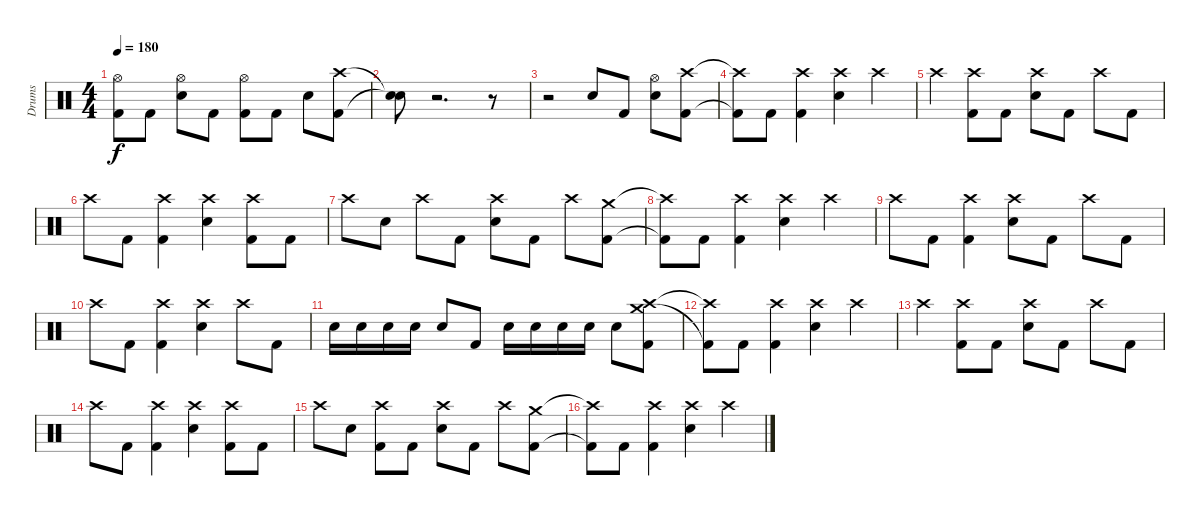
\track ("Drums" "Drums") {instrument percussion}
\staff {score}
\articulation defaults
\ts (4 4)
\tempo 180
\clef neutral
\ks c
("Hi-Hat (open)" "Kick (hit) 2").8{dy f} "Kick (hit) 2".8 ("Hi-Hat (open)" "Electric Snare (hit)").8 "Kick (hit) 2".8 ("Hi-Hat (open)" "Kick (hit) 2").8 "Kick (hit) 2".8 "Electric Snare (hit)".8 ("Crash high (hit)" "Kick (hit) 2").8 |
("Snare (hit)"{t} "Snare (hit)"{t}).8 r.2{d volume 0} r.8 |
r.2 "Electric Snare (hit)".8{volume 16} "Kick (hit) 2".8 ("Hi-Hat (open)" "Electric Snare (hit)").8 ("Crash high (hit)" "Kick (hit) 2").8 |
("Crash high (hit)"{t} "Kick (hit) 2"{t}).8 "Kick (hit) 2".8 ("Crash high (hit)" "Kick (hit) 2").4 ("Crash high (hit)" "Electric Snare (hit)").4 "Crash high (hit)".4 |
"Crash high (hit)".4 ("Crash high (hit)" "Kick (hit) 2").8 "Kick (hit) 2".8 ("Crash high (hit)" "Electric Snare (hit)").8 "Kick (hit) 2".8 "Crash high (hit)".8 "Kick (hit) 2".8 |
"Crash high (hit)".8 "Kick (hit) 2".8 ("Crash high (hit)" "Kick (hit) 2").4 ("Crash high (hit)" "Electric Snare (hit)").4 ("Crash high (hit)" "Kick (hit) 2").8 "Kick (hit) 2".8 |
"Crash high (hit)".8 "Electric Snare (hit)".8 "Crash high (hit)".8 "Kick (hit) 2".8 ("Crash high (hit)" "Electric Snare (hit)").8 "Kick (hit) 2".8 "Crash high (hit)".8 ("Crash medium (hit)" "Kick (hit) 2").8 |
("Crash high (hit)"{t} "Kick (hit) 2"{t}).8 "Kick (hit) 2".8 ("Crash high (hit)" "Kick (hit) 2").4 ("Crash high (hit)" "Electric Snare (hit)").4 "Crash high (hit)".4 |
"Crash high (hit)".8 "Kick (hit) 2".8 ("Crash high (hit)" "Kick (hit) 2").4 ("Crash high (hit)" "Electric Snare (hit)").8 "Kick (hit) 2".8 "Crash high (hit)".8 "Kick (hit) 2".8 |
"Crash high (hit)".8 "Kick (hit) 2".8 ("Crash high (hit)" "Kick (hit) 2").4 ("Crash high (hit)" "Electric Snare (hit)").4 "Crash high (hit)".8 "Kick (hit) 2".8 |
"Electric Snare (hit)".16 "Electric Snare (hit)".16 "Electric Snare (hit)".16 "Electric Snare (hit)".16 "Electric Snare (hit)".8 "Kick (hit) 2".8 "Electric Snare (hit)".16 "Electric Snare (hit)".16 "Electric Snare (hit)".16 "Electric Snare (hit)".16 "Electric Snare (hit)".8 ("Crash high (hit)" "Crash medium (hit)" "Kick (hit) 2").8 |
("Crash high (hit)"{t} "Kick (hit) 2"{t}).8 "Kick (hit) 2".8 ("Crash high (hit)" "Kick (hit) 2").4 ("Crash high (hit)" "Electric Snare (hit)").4 "Crash high (hit)".4 |
"Crash high (hit)".4 ("Crash high (hit)" "Kick (hit) 2").8 "Kick (hit) 2".8 ("Crash high (hit)" "Electric Snare (hit)").8 "Kick (hit) 2".8 "Crash high (hit)".8 "Kick (hit) 2".8 |
"Crash high (hit)".8 "Kick (hit) 2".8 ("Crash high (hit)" "Kick (hit) 2").4 ("Crash high (hit)" "Electric Snare (hit)").4 ("Crash high (hit)" "Kick (hit) 2").8 "Kick (hit) 2".8 |
"Crash high (hit)".8 "Electric Snare (hit)".8 ("Crash high (hit)" "Kick (hit) 2").8 "Kick (hit) 2".8 ("Crash high (hit)" "Electric Snare (hit)").8 "Kick (hit) 2".8 "Crash high (hit)".8 ("Crash medium (hit)" "Kick (hit) 2").8 |
("Crash high (hit)"{t} "Kick (hit) 2"{t}).8 "Kick (hit) 2".8 ("Crash high (hit)" "Kick (hit) 2").4 ("Crash high (hit)" "Electric Snare (hit)").4 "Crash high (hit)".4
